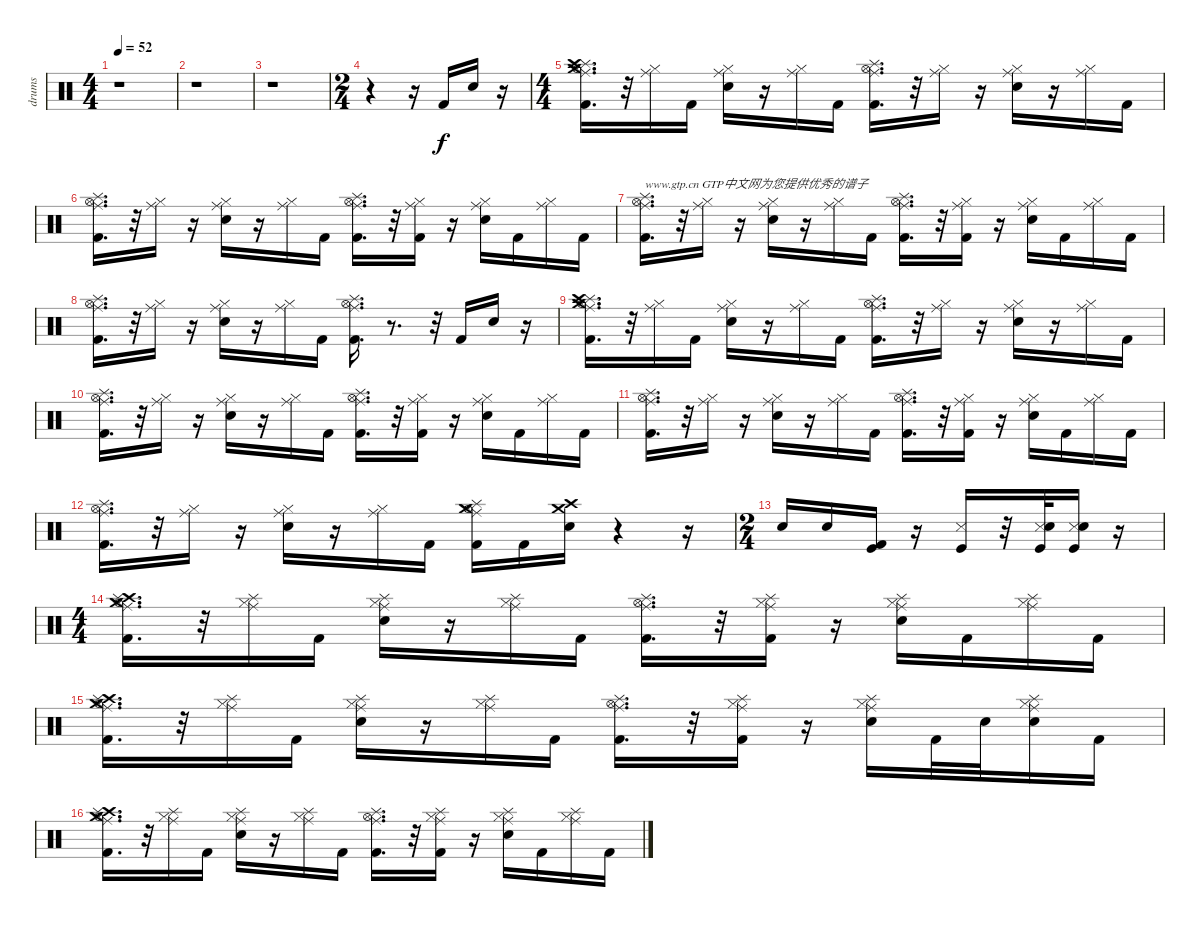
\track ("drums" "drums") {instrument percussion}
\staff {score}
\articulation defaults
\ts (4 4)
\tempo 52
\clef neutral
\ks c
r.1{dy f} |
r.1 |
r.1 |
\ts (2 4)
r.4 r.16 "Kick (hit) 2".16 "Snare (hit) 2".16 r.16 |
\ts (4 4)
("Ride (middle)" "Hi-Hat (open)" "Splash (hit)" "Crash medium (hit)" "Crash high (hit)" "Kick (hit) 2").16{d} r.32 ("Ride (middle)" "Hi-Hat (closed)").16 "Kick (hit) 2".16 ("Ride (middle)" "Hi-Hat (closed)" "Snare (hit) 2").16 r.16 ("Ride (middle)" "Hi-Hat (closed)").16 "Kick (hit) 2".16 ("Ride (middle)" "Hi-Hat (open)" "Splash (hit)" "Kick (hit) 2").16{d} r.32 ("Ride (middle)" "Hi-Hat (closed)").16 r.16 ("Ride (middle)" "Hi-Hat (closed)" "Snare (hit) 2").16 r.16 ("Ride (middle)" "Hi-Hat (closed)").16 "Kick (hit) 2".16 |
("Ride (middle)" "Hi-Hat (open)" "Splash (hit)" "Kick (hit) 2").16{d} r.32 ("Ride (middle)" "Hi-Hat (closed)").16 r.16 ("Ride (middle)" "Hi-Hat (closed)" "Snare (hit) 2").16 r.16 ("Ride (middle)" "Hi-Hat (closed)").16 "Kick (hit) 2".16 ("Ride (middle)" "Hi-Hat (open)" "Splash (hit)" "Kick (hit) 2").16{d} r.32 ("Ride (middle)" "Hi-Hat (closed)" "Kick (hit) 2").16 r.16 ("Ride (middle)" "Hi-Hat (closed)" "Snare (hit) 2").16 "Kick (hit) 2".16 ("Ride (middle)" "Hi-Hat (closed)").16 "Kick (hit) 2".16 |
("Ride (middle)" "Hi-Hat (open)" "Splash (hit)" "Kick (hit) 2").16{d txt "www.gtp.cn GTP中文网为您提供优秀的谱子"} r.32 ("Ride (middle)" "Hi-Hat (closed)").16 r.16 ("Ride (middle)" "Hi-Hat (closed)" "Snare (hit) 2").16 r.16 ("Ride (middle)" "Hi-Hat (closed)").16 "Kick (hit) 2".16 ("Ride (middle)" "Hi-Hat (open)" "Splash (hit)" "Kick (hit) 2").16{d} r.32 ("Ride (middle)" "Hi-Hat (closed)" "Kick (hit) 2").16 r.16 ("Ride (middle)" "Hi-Hat (closed)" "Snare (hit) 2").16 "Kick (hit) 2".16 ("Ride (middle)" "Hi-Hat (closed)").16 "Kick (hit) 2".16 |
("Ride (middle)" "Hi-Hat (open)" "Splash (hit)" "Kick (hit) 2").16{d} r.32 ("Ride (middle)" "Hi-Hat (closed)").16 r.16 ("Ride (middle)" "Hi-Hat (closed)" "Snare (hit) 2").16 r.16 ("Ride (middle)" "Hi-Hat (closed)").16 "Kick (hit) 2".16 ("Ride (middle)" "Hi-Hat (open)" "Splash (hit)" "Kick (hit) 2").16{d} r.8{d} r.32 "Kick (hit) 2".16 "Snare (hit) 2".16 r.16 |
("Ride (middle)" "Hi-Hat (open)" "Splash (hit)" "Crash medium (hit)" "Crash high (hit)" "Kick (hit) 2").16{d} r.32 ("Ride (middle)" "Hi-Hat (closed)").16 "Kick (hit) 2".16 ("Ride (middle)" "Hi-Hat (closed)" "Snare (hit) 2").16 r.16 ("Ride (middle)" "Hi-Hat (closed)").16 "Kick (hit) 2".16 ("Ride (middle)" "Hi-Hat (open)" "Splash (hit)" "Kick (hit) 2").16{d} r.32 ("Ride (middle)" "Hi-Hat (closed)").16 r.16 ("Ride (middle)" "Hi-Hat (closed)" "Snare (hit) 2").16 r.16 ("Ride (middle)" "Hi-Hat (closed)").16 "Kick (hit) 2".16 |
("Ride (middle)" "Hi-Hat (open)" "Splash (hit)" "Kick (hit) 2").16{d} r.32 ("Ride (middle)" "Hi-Hat (closed)").16 r.16 ("Ride (middle)" "Hi-Hat (closed)" "Snare (hit) 2").16 r.16 ("Ride (middle)" "Hi-Hat (closed)").16 "Kick (hit) 2".16 ("Ride (middle)" "Hi-Hat (open)" "Splash (hit)" "Kick (hit) 2").16{d} r.32 ("Ride (middle)" "Hi-Hat (closed)" "Kick (hit) 2").16 r.16 ("Ride (middle)" "Hi-Hat (closed)" "Snare (hit) 2").16 "Kick (hit) 2".16 ("Ride (middle)" "Hi-Hat (closed)").16 "Kick (hit) 2".16 |
("Ride (middle)" "Hi-Hat (open)" "Splash (hit)" "Kick (hit) 2").16{d} r.32 ("Ride (middle)" "Hi-Hat (closed)").16 r.16 ("Ride (middle)" "Hi-Hat (closed)" "Snare (hit) 2").16 r.16 ("Ride (middle)" "Hi-Hat (closed)").16 "Kick (hit) 2".16 ("Ride (middle)" "Hi-Hat (open)" "Splash (hit)" "Kick (hit) 2").16{d} r.32 ("Ride (middle)" "Hi-Hat (closed)" "Kick (hit) 2").16 r.16 ("Ride (middle)" "Hi-Hat (closed)" "Snare (hit) 2").16 "Kick (hit) 2".16 ("Ride (middle)" "Hi-Hat (closed)").16 "Kick (hit) 2".16 |
("Ride (middle)" "Hi-Hat (open)" "Splash (hit)" "Kick (hit) 2").16{d} r.32 ("Ride (middle)" "Hi-Hat (closed)").16 r.16 ("Ride (middle)" "Hi-Hat (closed)" "Snare (hit) 2").16 r.16 ("Ride (middle)" "Hi-Hat (closed)").16 "Kick (hit) 2".16 ("Ride (middle)" "Hi-Hat (open)" "Splash (hit)" "Kick (hit) 2" "Crash medium (hit)").16 "Kick (hit) 2".16 ("Crash medium (hit)" "Crash high (hit)" "Snare (hit) 2").16 r.4 r.16 |
\ts (2 4)
"Snare (hit) 2".16 "Snare (hit) 2".16 ("Kick (hit) 2" "Kick (hit)").16 r.16 ("Metronome (hit)" "Kick (hit)").16 r.32 ("Kick (hit)" "Metronome (hit)" "Snare (hit) 2").32 ("Kick (hit)" "Metronome (hit)" "Snare (hit) 2").16 r.16 |
\ts (4 4)
("Crash medium (hit)" "Crash high (hit)" "Kick (hit) 2" "Ride (middle)" "Hi-Hat (open)" "Splash (hit)").16{d} r.32 ("Ride (middle)" "Hi-Hat (closed)" "Splash (hit)").16 "Kick (hit) 2".16 ("Snare (hit) 2" "Ride (middle)" "Hi-Hat (closed)" "Splash (hit)").16 r.16 ("Ride (middle)" "Hi-Hat (closed)" "Splash (hit)").16 "Kick (hit) 2".16 ("Kick (hit) 2" "Ride (middle)" "Hi-Hat (open)" "Splash (hit)").16{d} r.32 ("Kick (hit) 2" "Ride (middle)" "Hi-Hat (closed)" "Splash (hit)").16 r.16 ("Snare (hit) 2" "Ride (middle)" "Hi-Hat (closed)" "Splash (hit)").16 "Kick (hit) 2".16 ("Ride (middle)" "Hi-Hat (closed)" "Splash (hit)").16 "Kick (hit) 2".16 |
("Crash medium (hit)" "Crash high (hit)" "Kick (hit) 2" "Ride (middle)" "Hi-Hat (open)" "Splash (hit)").16{d} r.32 ("Ride (middle)" "Hi-Hat (closed)" "Splash (hit)").16 "Kick (hit) 2".16 ("Snare (hit) 2" "Ride (middle)" "Hi-Hat (closed)" "Splash (hit)").16 r.16 ("Ride (middle)" "Hi-Hat (closed)" "Splash (hit)").16 "Kick (hit) 2".16 ("Kick (hit) 2" "Ride (middle)" "Hi-Hat (open)" "Splash (hit)").16{d} r.32 ("Kick (hit) 2" "Ride (middle)" "Hi-Hat (closed)" "Splash (hit)").16 r.16 ("Snare (hit) 2" "Ride (middle)" "Hi-Hat (closed)" "Splash (hit)").16 "Kick (hit) 2".32 "Snare (hit) 2".32 ("Hi-Hat (closed)" "Splash (hit)" "Ride (middle)" "Snare (hit) 2").16 "Kick (hit) 2".16 |
("Crash medium (hit)" "Crash high (hit)" "Kick (hit) 2" "Ride (middle)" "Hi-Hat (open)" "Splash (hit)").16{d} r.32 ("Ride (middle)" "Hi-Hat (closed)" "Splash (hit)").16 "Kick (hit) 2".16 ("Snare (hit) 2" "Ride (middle)" "Hi-Hat (closed)" "Splash (hit)").16 r.16 ("Ride (middle)" "Hi-Hat (closed)" "Splash (hit)").16 "Kick (hit) 2".16 ("Kick (hit) 2" "Ride (middle)" "Hi-Hat (open)" "Splash (hit)").16{d} r.32 ("Kick (hit) 2" "Ride (middle)" "Hi-Hat (closed)" "Splash (hit)").16 r.16 ("Snare (hit) 2" "Ride (middle)" "Hi-Hat (closed)" "Splash (hit)").16 "Kick (hit) 2".16 ("Ride (middle)" "Hi-Hat (closed)" "Splash (hit)").16 "Kick (hit) 2".16
